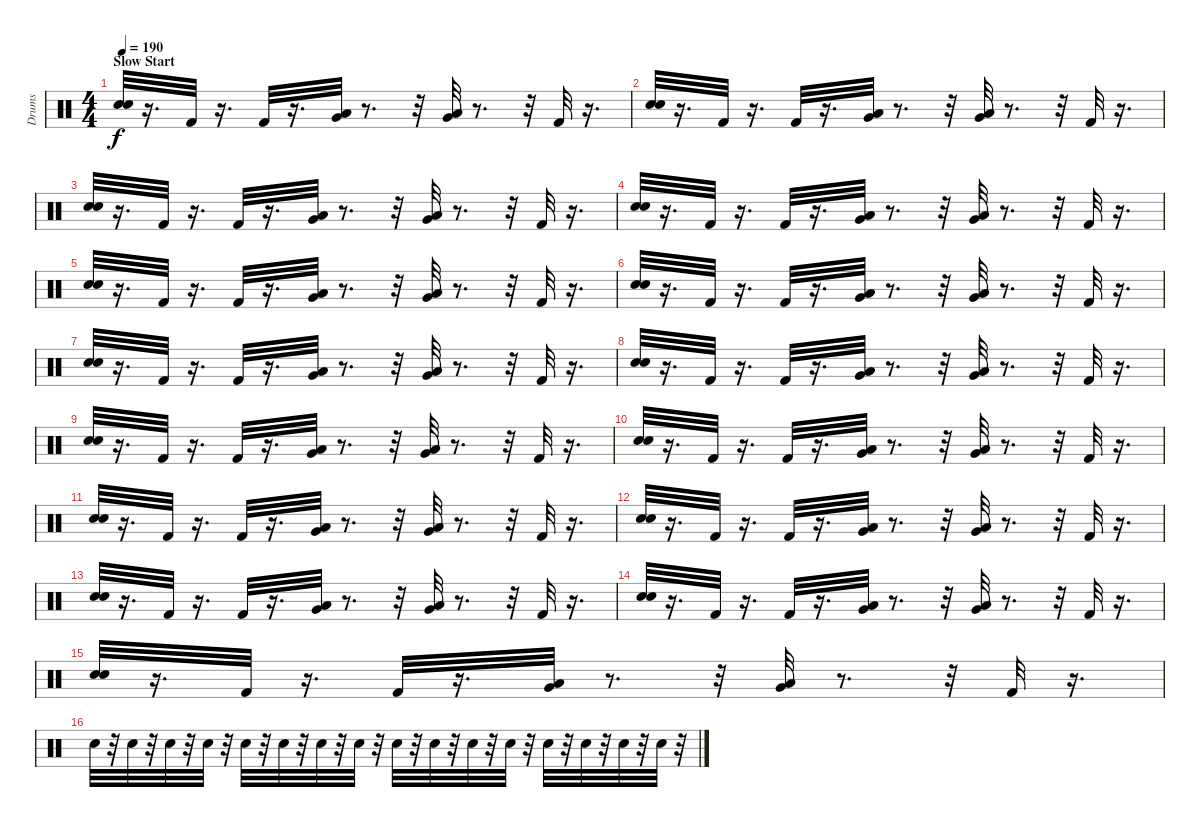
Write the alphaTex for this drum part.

\track ("Drums" "Drums") {instrument percussion}
\staff {score}
\articulation defaults
\ts (4 4)
\section ("" "Slow Start")
\tempo 190
\clef neutral
\ks c
("Snare (hit) 2" "Electric Snare (hit)").32{dy f} r.16{d} "Kick (hit) 2".32 r.16{d} "Kick (hit) 2".32 r.16{d} ("Low Tom (hit)" "Very Low Tom (hit)").32 r.8{d} r.32 ("Low Floor Tom (hit)" "Very Low Tom (hit)").32 r.8{d} r.32 "Kick (hit) 2".32 r.16{d} |
("Snare (hit) 2" "Electric Snare (hit)").32 r.16{d} "Kick (hit) 2".32 r.16{d} "Kick (hit) 2".32 r.16{d} ("Low Tom (hit)" "Very Low Tom (hit)").32 r.8{d} r.32 ("Low Floor Tom (hit)" "Very Low Tom (hit)").32 r.8{d} r.32 "Kick (hit) 2".32 r.16{d} |
("Snare (hit) 2" "Electric Snare (hit)").32 r.16{d} "Kick (hit) 2".32 r.16{d} "Kick (hit) 2".32 r.16{d} ("Low Tom (hit)" "Very Low Tom (hit)").32 r.8{d} r.32 ("Low Floor Tom (hit)" "Very Low Tom (hit)").32 r.8{d} r.32 "Kick (hit) 2".32 r.16{d} |
("Snare (hit) 2" "Electric Snare (hit)").32 r.16{d} "Kick (hit) 2".32 r.16{d} "Kick (hit) 2".32 r.16{d} ("Low Tom (hit)" "Very Low Tom (hit)").32 r.8{d} r.32 ("Low Floor Tom (hit)" "Very Low Tom (hit)").32 r.8{d} r.32 "Kick (hit) 2".32 r.16{d} |
("Snare (hit) 2" "Electric Snare (hit)").32 r.16{d} "Kick (hit) 2".32 r.16{d} "Kick (hit) 2".32 r.16{d} ("Low Tom (hit)" "Very Low Tom (hit)").32 r.8{d} r.32 ("Very Low Tom (hit)" "Low Floor Tom (hit)").32 r.8{d} r.32 "Kick (hit) 2".32 r.16{d} |
("Snare (hit) 2" "Electric Snare (hit)").32 r.16{d} "Kick (hit) 2".32 r.16{d} "Kick (hit) 2".32 r.16{d} ("Very Low Tom (hit)" "Low Tom (hit)").32 r.8{d} r.32 ("Low Floor Tom (hit)" "Very Low Tom (hit)").32 r.8{d} r.32 "Kick (hit) 2".32 r.16{d} |
("Snare (hit) 2" "Electric Snare (hit)").32 r.16{d} "Kick (hit) 2".32 r.16{d} "Kick (hit) 2".32 r.16{d} ("Low Tom (hit)" "Very Low Tom (hit)").32 r.8{d} r.32 ("Low Floor Tom (hit)" "Very Low Tom (hit)").32 r.8{d} r.32 "Kick (hit) 2".32 r.16{d} |
("Snare (hit) 2" "Electric Snare (hit)").32 r.16{d} "Kick (hit) 2".32 r.16{d} "Kick (hit) 2".32 r.16{d} ("Low Tom (hit)" "Very Low Tom (hit)").32 r.8{d} r.32 ("Very Low Tom (hit)" "Low Floor Tom (hit)").32 r.8{d} r.32 "Kick (hit) 2".32 r.16{d} |
("Snare (hit) 2" "Electric Snare (hit)").32 r.16{d} "Kick (hit) 2".32 r.16{d} "Kick (hit) 2".32 r.16{d} ("Very Low Tom (hit)" "Low Tom (hit)").32 r.8{d} r.32 ("Very Low Tom (hit)" "Low Floor Tom (hit)").32 r.8{d} r.32 "Kick (hit) 2".32 r.16{d} |
("Snare (hit) 2" "Electric Snare (hit)").32 r.16{d} "Kick (hit) 2".32 r.16{d} "Kick (hit) 2".32 r.16{d} ("Very Low Tom (hit)" "Low Tom (hit)").32 r.8{d} r.32 ("Low Floor Tom (hit)" "Very Low Tom (hit)").32 r.8{d} r.32 "Kick (hit) 2".32 r.16{d} |
("Snare (hit) 2" "Electric Snare (hit)").32 r.16{d} "Kick (hit) 2".32 r.16{d} "Kick (hit) 2".32 r.16{d} ("Very Low Tom (hit)" "Low Tom (hit)").32 r.8{d} r.32 ("Low Floor Tom (hit)" "Very Low Tom (hit)").32 r.8{d} r.32 "Kick (hit) 2".32 r.16{d} |
("Snare (hit) 2" "Electric Snare (hit)").32 r.16{d} "Kick (hit) 2".32 r.16{d} "Kick (hit) 2".32 r.16{d} ("Low Tom (hit)" "Very Low Tom (hit)").32 r.8{d} r.32 ("Low Floor Tom (hit)" "Very Low Tom (hit)").32 r.8{d} r.32 "Kick (hit) 2".32 r.16{d} |
("Snare (hit) 2" "Electric Snare (hit)").32 r.16{d} "Kick (hit) 2".32 r.16{d} "Kick (hit) 2".32 r.16{d} ("Low Tom (hit)" "Very Low Tom (hit)").32 r.8{d} r.32 ("Very Low Tom (hit)" "Low Floor Tom (hit)").32 r.8{d} r.32 "Kick (hit) 2".32 r.16{d} |
("Snare (hit) 2" "Electric Snare (hit)").32 r.16{d} "Kick (hit) 2".32 r.16{d} "Kick (hit) 2".32 r.16{d} ("Very Low Tom (hit)" "Low Tom (hit)").32 r.8{d} r.32 ("Low Floor Tom (hit)" "Very Low Tom (hit)").32 r.8{d} r.32 "Kick (hit) 2".32 r.16{d} |
("Snare (hit) 2" "Electric Snare (hit)").32 r.16{d} "Kick (hit) 2".32 r.16{d} "Kick (hit) 2".32 r.16{d} ("Very Low Tom (hit)" "Low Tom (hit)").32 r.8{d} r.32 ("Very Low Tom (hit)" "Low Floor Tom (hit)").32 r.8{d} r.32 "Kick (hit) 2".32 r.16{d} |
"Snare (hit) 2".32 r.32 "Snare (hit) 2".32 r.32 "Snare (hit) 2".32 r.32 "Snare (hit) 2".32 r.32 "Snare (hit) 2".32 r.32 "Snare (hit) 2".32 r.32 "Snare (hit) 2".32 r.32 "Snare (hit) 2".32 r.32 "Snare (hit) 2".32 r.32 "Snare (hit) 2".32 r.32 "Snare (hit) 2".32 r.32 "Snare (hit) 2".32 r.32 "Snare (hit) 2".32 r.32 "Snare (hit) 2".32 r.32 "Snare (hit) 2".32 r.32 "Snare (hit) 2".32 r.32
